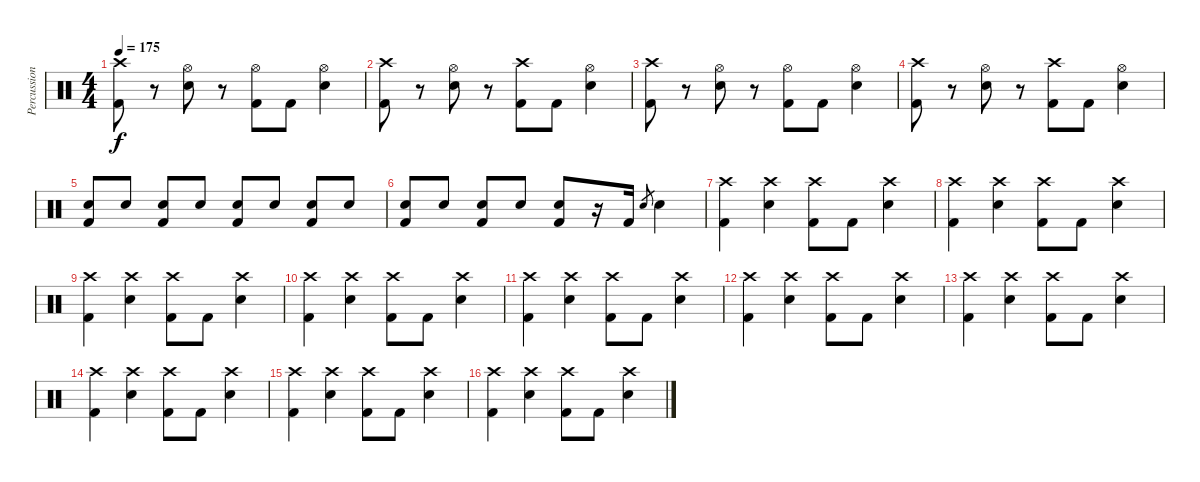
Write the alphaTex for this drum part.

\track ("Percussion" "Percussion") {instrument percussion}
\staff {score}
\articulation defaults
\ts (4 4)
\tempo 175
\clef neutral
\ks c
("Kick (hit) 2" "Crash high (hit)").8{dy f} r.8 ("Electric Snare (hit)" "Hi-Hat (open)").8 r.8 ("Kick (hit) 2" "Hi-Hat (open)").8 "Kick (hit) 2".8 ("Electric Snare (hit)" "Hi-Hat (open)").4 |
("Kick (hit) 2" "Crash high (hit)").8 r.8 ("Electric Snare (hit)" "Hi-Hat (open)").8 r.8 ("Kick (hit) 2" "Crash high (hit)").8 "Kick (hit) 2".8 ("Electric Snare (hit)" "Hi-Hat (open)").4 |
("Kick (hit) 2" "Crash high (hit)").8 r.8 ("Electric Snare (hit)" "Hi-Hat (open)").8 r.8 ("Kick (hit) 2" "Hi-Hat (open)").8 "Kick (hit) 2".8 ("Electric Snare (hit)" "Hi-Hat (open)").4 |
("Kick (hit) 2" "Crash high (hit)").8 r.8 ("Electric Snare (hit)" "Hi-Hat (open)").8 r.8 ("Kick (hit) 2" "Crash high (hit)").8 "Kick (hit) 2".8 ("Electric Snare (hit)" "Hi-Hat (open)").4 |
("Kick (hit) 2" "Electric Snare (hit)").8 "Electric Snare (hit)".8 ("Kick (hit) 2" "Electric Snare (hit)").8 "Electric Snare (hit)".8 ("Kick (hit) 2" "Electric Snare (hit)").8 "Electric Snare (hit)".8 ("Kick (hit) 2" "Electric Snare (hit)").8 "Electric Snare (hit)".8 |
("Kick (hit) 2" "Electric Snare (hit)").8 "Electric Snare (hit)".8 ("Kick (hit) 2" "Electric Snare (hit)").8 "Electric Snare (hit)".8 ("Kick (hit) 2" "Electric Snare (hit)").8 r.16 "Kick (hit) 2".16 "Electric Snare (hit)".8{gr} "Electric Snare (hit)".4 |
("Kick (hit) 2" "Crash high (hit)").4 ("Electric Snare (hit)" "Crash high (hit)").4 ("Kick (hit) 2" "Crash high (hit)").8 "Kick (hit) 2".8 ("Electric Snare (hit)" "Crash high (hit)").4 |
("Kick (hit) 2" "Crash high (hit)").4 ("Electric Snare (hit)" "Crash high (hit)").4 ("Kick (hit) 2" "Crash high (hit)").8 "Kick (hit) 2".8 ("Electric Snare (hit)" "Crash high (hit)").4 |
("Kick (hit) 2" "Crash high (hit)").4 ("Electric Snare (hit)" "Crash high (hit)").4 ("Kick (hit) 2" "Crash high (hit)").8 "Kick (hit) 2".8 ("Electric Snare (hit)" "Crash high (hit)").4 |
("Kick (hit) 2" "Crash high (hit)").4 ("Electric Snare (hit)" "Crash high (hit)").4 ("Kick (hit) 2" "Crash high (hit)").8 "Kick (hit) 2".8 ("Electric Snare (hit)" "Crash high (hit)").4 |
("Kick (hit) 2" "Crash high (hit)").4 ("Electric Snare (hit)" "Crash high (hit)").4 ("Kick (hit) 2" "Crash high (hit)").8 "Kick (hit) 2".8 ("Electric Snare (hit)" "Crash high (hit)").4 |
("Kick (hit) 2" "Crash high (hit)").4 ("Electric Snare (hit)" "Crash high (hit)").4 ("Kick (hit) 2" "Crash high (hit)").8 "Kick (hit) 2".8 ("Electric Snare (hit)" "Crash high (hit)").4 |
("Kick (hit) 2" "Crash high (hit)").4 ("Electric Snare (hit)" "Crash high (hit)").4 ("Kick (hit) 2" "Crash high (hit)").8 "Kick (hit) 2".8 ("Electric Snare (hit)" "Crash high (hit)").4 |
("Kick (hit) 2" "Crash high (hit)").4 ("Electric Snare (hit)" "Crash high (hit)").4 ("Kick (hit) 2" "Crash high (hit)").8 "Kick (hit) 2".8 ("Electric Snare (hit)" "Crash high (hit)").4 |
("Kick (hit) 2" "Crash high (hit)").4 ("Electric Snare (hit)" "Crash high (hit)").4 ("Kick (hit) 2" "Crash high (hit)").8 "Kick (hit) 2".8 ("Electric Snare (hit)" "Crash high (hit)").4 |
("Kick (hit) 2" "Crash high (hit)").4 ("Electric Snare (hit)" "Crash high (hit)").4 ("Kick (hit) 2" "Crash high (hit)").8 "Kick (hit) 2".8 ("Electric Snare (hit)" "Crash high (hit)").4
